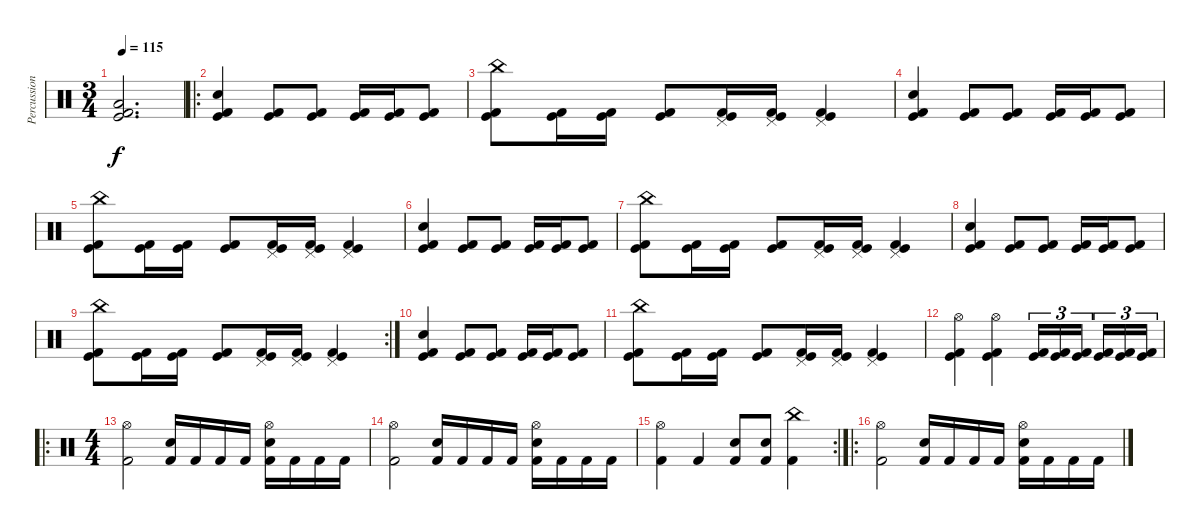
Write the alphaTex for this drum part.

\track ("Percussion" "Percussion") {instrument percussion}
\staff {score}
\articulation defaults
\ts (3 4)
\tempo 115
\clef neutral
\ks c
("Low Floor Tom (hit)" "Kick (hit)" "Kick (hit) 2").2{d dy f} |
\ro
("Kick (hit) 2" "Kick (hit)" "Snare (hit) 2").4 ("Kick (hit)" "Kick (hit) 2").8 ("Kick (hit)" "Kick (hit) 2").8 ("Kick (hit)" "Kick (hit) 2").16 ("Kick (hit)" "Kick (hit) 2").16 ("Kick (hit)" "Kick (hit) 2").8 |
("China (hit)" "Kick (hit)" "Kick (hit) 2").8 ("Kick (hit)" "Kick (hit) 2").16 ("Kick (hit)" "Kick (hit) 2").16 ("Kick (hit)" "Kick (hit) 2").8 ("Pedal Hi-Hat (hit)" "Kick (hit)" "Kick (hit) 2").16 ("Pedal Hi-Hat (hit)" "Kick (hit)" "Kick (hit) 2").16 ("Pedal Hi-Hat (hit)" "Kick (hit)" "Kick (hit) 2").4 |
("Kick (hit) 2" "Kick (hit)" "Snare (hit) 2").4 ("Kick (hit)" "Kick (hit) 2").8 ("Kick (hit)" "Kick (hit) 2").8 ("Kick (hit)" "Kick (hit) 2").16 ("Kick (hit)" "Kick (hit) 2").16 ("Kick (hit)" "Kick (hit) 2").8 |
("China (hit)" "Kick (hit)" "Kick (hit) 2").8 ("Kick (hit)" "Kick (hit) 2").16 ("Kick (hit)" "Kick (hit) 2").16 ("Kick (hit)" "Kick (hit) 2").8 ("Pedal Hi-Hat (hit)" "Kick (hit)" "Kick (hit) 2").16 ("Pedal Hi-Hat (hit)" "Kick (hit)" "Kick (hit) 2").16 ("Pedal Hi-Hat (hit)" "Kick (hit)" "Kick (hit) 2").4 |
("Kick (hit) 2" "Kick (hit)" "Snare (hit) 2").4 ("Kick (hit)" "Kick (hit) 2").8 ("Kick (hit)" "Kick (hit) 2").8 ("Kick (hit)" "Kick (hit) 2").16 ("Kick (hit)" "Kick (hit) 2").16 ("Kick (hit)" "Kick (hit) 2").8 |
("China (hit)" "Kick (hit)" "Kick (hit) 2").8 ("Kick (hit)" "Kick (hit) 2").16 ("Kick (hit)" "Kick (hit) 2").16 ("Kick (hit)" "Kick (hit) 2").8 ("Pedal Hi-Hat (hit)" "Kick (hit)" "Kick (hit) 2").16 ("Pedal Hi-Hat (hit)" "Kick (hit)" "Kick (hit) 2").16 ("Pedal Hi-Hat (hit)" "Kick (hit)" "Kick (hit) 2").4 |
("Kick (hit) 2" "Kick (hit)" "Snare (hit) 2").4 ("Kick (hit)" "Kick (hit) 2").8 ("Kick (hit)" "Kick (hit) 2").8 ("Kick (hit)" "Kick (hit) 2").16 ("Kick (hit)" "Kick (hit) 2").16 ("Kick (hit)" "Kick (hit) 2").8 |
\rc 2
("China (hit)" "Kick (hit)" "Kick (hit) 2").8 ("Kick (hit)" "Kick (hit) 2").16 ("Kick (hit)" "Kick (hit) 2").16 ("Kick (hit)" "Kick (hit) 2").8 ("Pedal Hi-Hat (hit)" "Kick (hit)" "Kick (hit) 2").16 ("Pedal Hi-Hat (hit)" "Kick (hit)" "Kick (hit) 2").16 ("Pedal Hi-Hat (hit)" "Kick (hit)" "Kick (hit) 2").4 |
("Kick (hit) 2" "Kick (hit)" "Snare (hit) 2").4 ("Kick (hit)" "Kick (hit) 2").8 ("Kick (hit)" "Kick (hit) 2").8 ("Kick (hit)" "Kick (hit) 2").16 ("Kick (hit)" "Kick (hit) 2").16 ("Kick (hit)" "Kick (hit) 2").8 |
("China (hit)" "Kick (hit)" "Kick (hit) 2").8 ("Kick (hit)" "Kick (hit) 2").16 ("Kick (hit)" "Kick (hit) 2").16 ("Kick (hit)" "Kick (hit) 2").8 ("Pedal Hi-Hat (hit)" "Kick (hit)" "Kick (hit) 2").16 ("Pedal Hi-Hat (hit)" "Kick (hit)" "Kick (hit) 2").16 ("Pedal Hi-Hat (hit)" "Kick (hit)" "Kick (hit) 2").4 |
("Hi-Hat (open)" "Kick (hit)" "Kick (hit) 2").4 ("Hi-Hat (open)" "Kick (hit)" "Kick (hit) 2").4 ("Kick (hit)" "Kick (hit) 2").16{tu (3 2)} ("Kick (hit)" "Kick (hit) 2").16{tu (3 2)} ("Kick (hit)" "Kick (hit) 2").16{tu (3 2) beam splitsecondary} ("Kick (hit)" "Kick (hit) 2").16{tu (3 2)} ("Kick (hit)" "Kick (hit) 2").16{tu (3 2)} ("Kick (hit)" "Kick (hit) 2").16{tu (3 2)} |
\ro
\ts (4 4)
("Hi-Hat (open)" "Kick (hit) 2").2 ("Snare (hit) 2" "Kick (hit) 2").16 "Kick (hit) 2".16 "Kick (hit) 2".16 "Kick (hit) 2".16 ("Hi-Hat (open)" "Snare (hit) 2" "Kick (hit) 2").16 "Kick (hit) 2".16 "Kick (hit) 2".16 "Kick (hit) 2".16 |
("Hi-Hat (open)" "Kick (hit) 2").2 ("Snare (hit) 2" "Kick (hit) 2").16 "Kick (hit) 2".16 "Kick (hit) 2".16 "Kick (hit) 2".16 ("Hi-Hat (open)" "Snare (hit) 2" "Kick (hit) 2").16 "Kick (hit) 2".16 "Kick (hit) 2".16 "Kick (hit) 2".16 |
\rc 2
("Hi-Hat (open)" "Kick (hit) 2").4 "Kick (hit) 2".4 ("Snare (hit) 2" "Kick (hit) 2").8 ("Snare (hit) 2" "Kick (hit) 2").8 ("China (hit)" "Kick (hit) 2").4 |
\ro
("Hi-Hat (open)" "Kick (hit) 2").2 ("Snare (hit) 2" "Kick (hit) 2").16 "Kick (hit) 2".16 "Kick (hit) 2".16 "Kick (hit) 2".16 ("Hi-Hat (open)" "Snare (hit) 2" "Kick (hit) 2").16 "Kick (hit) 2".16 "Kick (hit) 2".16 "Kick (hit) 2".16
